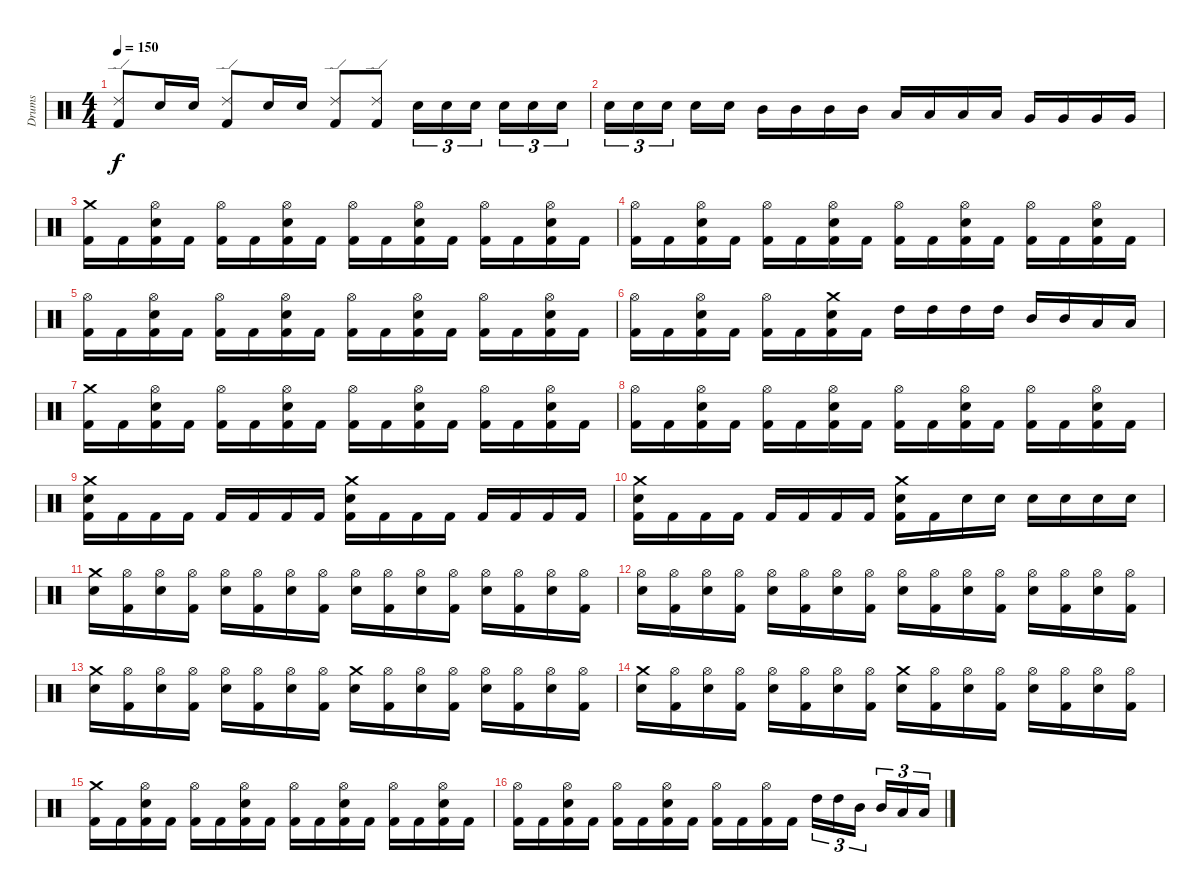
\track ("Drums" "Drums") {instrument percussion}
\staff {score}
\articulation defaults
\ts (4 4)
\tempo 150
\clef neutral
\ks c
("Ride (edge) 2" "Kick (hit) 2").8{dy f} "Electric Snare (hit)".16 "Electric Snare (hit)".16 ("Ride (edge) 2" "Kick (hit) 2").8 "Electric Snare (hit)".16 "Electric Snare (hit)".16 ("Ride (edge) 2" "Kick (hit) 2").8 ("Ride (edge) 2" "Kick (hit) 2").8 "Electric Snare (hit)".16{tu (3 2)} "Electric Snare (hit)".16{tu (3 2)} "Electric Snare (hit)".16{tu (3 2)} "Electric Snare (hit)".16{tu (3 2)} "Electric Snare (hit)".16{tu (3 2)} "Electric Snare (hit)".16{tu (3 2)} |
"Electric Snare (hit)".16{tu (3 2)} "Electric Snare (hit)".16{tu (3 2)} "Electric Snare (hit)".16{tu (3 2)} "Electric Snare (hit)".16 "Electric Snare (hit)".16 "Mid Tom (hit)".16 "Mid Tom (hit)".16 "Mid Tom (hit)".16 "Mid Tom (hit)".16 "Low Tom (hit)".16 "Low Tom (hit)".16 "Low Tom (hit)".16 "Low Tom (hit)".16 "Very Low Tom (hit)".16 "Very Low Tom (hit)".16 "Very Low Tom (hit)".16 "Very Low Tom (hit)".16 |
("Crash medium (hit)" "Kick (hit) 2").16 "Kick (hit) 2".16 ("Hi-Hat (open)" "Electric Snare (hit)" "Kick (hit) 2").16 "Kick (hit) 2".16 ("Hi-Hat (open)" "Kick (hit) 2").16 "Kick (hit) 2".16 ("Hi-Hat (open)" "Electric Snare (hit)" "Kick (hit) 2").16 "Kick (hit) 2".16 ("Hi-Hat (open)" "Kick (hit) 2").16 "Kick (hit) 2".16 ("Hi-Hat (open)" "Electric Snare (hit)" "Kick (hit) 2").16 "Kick (hit) 2".16 ("Hi-Hat (open)" "Kick (hit) 2").16 "Kick (hit) 2".16 ("Hi-Hat (open)" "Electric Snare (hit)" "Kick (hit) 2").16 "Kick (hit) 2".16 |
("Hi-Hat (open)" "Kick (hit) 2").16 "Kick (hit) 2".16 ("Hi-Hat (open)" "Electric Snare (hit)" "Kick (hit) 2").16 "Kick (hit) 2".16 ("Hi-Hat (open)" "Kick (hit) 2").16 "Kick (hit) 2".16 ("Hi-Hat (open)" "Electric Snare (hit)" "Kick (hit) 2").16 "Kick (hit) 2".16 ("Hi-Hat (open)" "Kick (hit) 2").16 "Kick (hit) 2".16 ("Hi-Hat (open)" "Electric Snare (hit)" "Kick (hit) 2").16 "Kick (hit) 2".16 ("Hi-Hat (open)" "Kick (hit) 2").16 "Kick (hit) 2".16 ("Hi-Hat (open)" "Electric Snare (hit)" "Kick (hit) 2").16 "Kick (hit) 2".16 |
("Hi-Hat (open)" "Kick (hit) 2").16 "Kick (hit) 2".16 ("Hi-Hat (open)" "Electric Snare (hit)" "Kick (hit) 2").16 "Kick (hit) 2".16 ("Hi-Hat (open)" "Kick (hit) 2").16 "Kick (hit) 2".16 ("Hi-Hat (open)" "Electric Snare (hit)" "Kick (hit) 2").16 "Kick (hit) 2".16 ("Hi-Hat (open)" "Kick (hit) 2").16 "Kick (hit) 2".16 ("Hi-Hat (open)" "Electric Snare (hit)" "Kick (hit) 2").16 "Kick (hit) 2".16 ("Hi-Hat (open)" "Kick (hit) 2").16 "Kick (hit) 2".16 ("Hi-Hat (open)" "Electric Snare (hit)" "Kick (hit) 2").16 "Kick (hit) 2".16 |
("Hi-Hat (open)" "Kick (hit) 2").16 "Kick (hit) 2".16 ("Hi-Hat (open)" "Electric Snare (hit)" "Kick (hit) 2").16 "Kick (hit) 2".16 ("Hi-Hat (open)" "Kick (hit) 2").16 "Kick (hit) 2".16 ("Crash medium (hit)" "Electric Snare (hit)" "Kick (hit) 2").16 "Kick (hit) 2".16 "High Tom (hit)".16 "High Tom (hit)".16 "High Tom (hit)".16 "High Tom (hit)".16 "Mid Tom (hit)".16 "Mid Tom (hit)".16 "Low Tom (hit)".16 "Low Tom (hit)".16 |
("Crash medium (hit)" "Kick (hit) 2").16 "Kick (hit) 2".16 ("Hi-Hat (open)" "Electric Snare (hit)" "Kick (hit) 2").16 "Kick (hit) 2".16 ("Hi-Hat (open)" "Kick (hit) 2").16 "Kick (hit) 2".16 ("Hi-Hat (open)" "Electric Snare (hit)" "Kick (hit) 2").16 "Kick (hit) 2".16 ("Hi-Hat (open)" "Kick (hit) 2").16 "Kick (hit) 2".16 ("Hi-Hat (open)" "Electric Snare (hit)" "Kick (hit) 2").16 "Kick (hit) 2".16 ("Hi-Hat (open)" "Kick (hit) 2").16 "Kick (hit) 2".16 ("Hi-Hat (open)" "Electric Snare (hit)" "Kick (hit) 2").16 "Kick (hit) 2".16 |
("Hi-Hat (open)" "Kick (hit) 2").16 "Kick (hit) 2".16 ("Hi-Hat (open)" "Electric Snare (hit)" "Kick (hit) 2").16 "Kick (hit) 2".16 ("Hi-Hat (open)" "Kick (hit) 2").16 "Kick (hit) 2".16 ("Hi-Hat (open)" "Electric Snare (hit)" "Kick (hit) 2").16 "Kick (hit) 2".16 ("Hi-Hat (open)" "Kick (hit) 2").16 "Kick (hit) 2".16 ("Hi-Hat (open)" "Electric Snare (hit)" "Kick (hit) 2").16 "Kick (hit) 2".16 ("Hi-Hat (open)" "Kick (hit) 2").16 "Kick (hit) 2".16 ("Hi-Hat (open)" "Electric Snare (hit)" "Kick (hit) 2").16 "Kick (hit) 2".16 |
("Crash medium (hit)" "Electric Snare (hit)" "Kick (hit) 2").16 "Kick (hit) 2".16 "Kick (hit) 2".16 "Kick (hit) 2".16 "Kick (hit) 2".16 "Kick (hit) 2".16 "Kick (hit) 2".16 "Kick (hit) 2".16 ("Crash medium (hit)" "Electric Snare (hit)" "Kick (hit) 2").16 "Kick (hit) 2".16 "Kick (hit) 2".16 "Kick (hit) 2".16 "Kick (hit) 2".16 "Kick (hit) 2".16 "Kick (hit) 2".16 "Kick (hit) 2".16 |
("Crash medium (hit)" "Electric Snare (hit)" "Kick (hit) 2").16 "Kick (hit) 2".16 "Kick (hit) 2".16 "Kick (hit) 2".16 "Kick (hit) 2".16 "Kick (hit) 2".16 "Kick (hit) 2".16 "Kick (hit) 2".16 ("Crash medium (hit)" "Electric Snare (hit)" "Kick (hit) 2").16 "Kick (hit) 2".16 "Electric Snare (hit)".16 "Electric Snare (hit)".16 "Electric Snare (hit)".16 "Electric Snare (hit)".16 "Electric Snare (hit)".16 "Electric Snare (hit)".16 |
("Crash medium (hit)" "Electric Snare (hit)").16 ("Hi-Hat (open)" "Kick (hit) 2").16 ("Hi-Hat (open)" "Electric Snare (hit)").16 ("Hi-Hat (open)" "Kick (hit) 2").16 ("Hi-Hat (open)" "Electric Snare (hit)").16 ("Hi-Hat (open)" "Kick (hit) 2").16 ("Hi-Hat (open)" "Electric Snare (hit)").16 ("Hi-Hat (open)" "Kick (hit) 2").16 ("Hi-Hat (open)" "Electric Snare (hit)").16 ("Hi-Hat (open)" "Kick (hit) 2").16 ("Hi-Hat (open)" "Electric Snare (hit)").16 ("Hi-Hat (open)" "Kick (hit) 2").16 ("Hi-Hat (open)" "Electric Snare (hit)").16 ("Hi-Hat (open)" "Kick (hit) 2").16 ("Hi-Hat (open)" "Electric Snare (hit)").16 ("Hi-Hat (open)" "Kick (hit) 2").16 |
("Hi-Hat (open)" "Electric Snare (hit)").16 ("Hi-Hat (open)" "Kick (hit) 2").16 ("Hi-Hat (open)" "Electric Snare (hit)").16 ("Hi-Hat (open)" "Kick (hit) 2").16 ("Hi-Hat (open)" "Electric Snare (hit)").16 ("Hi-Hat (open)" "Kick (hit) 2").16 ("Hi-Hat (open)" "Electric Snare (hit)").16 ("Hi-Hat (open)" "Kick (hit) 2").16 ("Hi-Hat (open)" "Electric Snare (hit)").16 ("Hi-Hat (open)" "Kick (hit) 2").16 ("Hi-Hat (open)" "Electric Snare (hit)").16 ("Hi-Hat (open)" "Kick (hit) 2").16 ("Hi-Hat (open)" "Electric Snare (hit)").16 ("Hi-Hat (open)" "Kick (hit) 2").16 ("Hi-Hat (open)" "Electric Snare (hit)").16 ("Hi-Hat (open)" "Kick (hit) 2").16 |
("Crash medium (hit)" "Electric Snare (hit)").16 ("Hi-Hat (open)" "Kick (hit) 2").16 ("Hi-Hat (open)" "Electric Snare (hit)").16 ("Hi-Hat (open)" "Kick (hit) 2").16 ("Hi-Hat (open)" "Electric Snare (hit)").16 ("Hi-Hat (open)" "Kick (hit) 2").16 ("Hi-Hat (open)" "Electric Snare (hit)").16 ("Hi-Hat (open)" "Kick (hit) 2").16 ("Crash medium (hit)" "Electric Snare (hit)").16 ("Hi-Hat (open)" "Kick (hit) 2").16 ("Hi-Hat (open)" "Electric Snare (hit)").16 ("Hi-Hat (open)" "Kick (hit) 2").16 ("Hi-Hat (open)" "Electric Snare (hit)").16 ("Hi-Hat (open)" "Kick (hit) 2").16 ("Hi-Hat (open)" "Electric Snare (hit)").16 ("Hi-Hat (open)" "Kick (hit) 2").16 |
("Crash medium (hit)" "Electric Snare (hit)").16 ("Hi-Hat (open)" "Kick (hit) 2").16 ("Hi-Hat (open)" "Electric Snare (hit)").16 ("Hi-Hat (open)" "Kick (hit) 2").16 ("Hi-Hat (open)" "Electric Snare (hit)").16 ("Hi-Hat (open)" "Kick (hit) 2").16 ("Hi-Hat (open)" "Electric Snare (hit)").16 ("Hi-Hat (open)" "Kick (hit) 2").16 ("Crash medium (hit)" "Electric Snare (hit)").16 ("Hi-Hat (open)" "Kick (hit) 2").16 ("Hi-Hat (open)" "Electric Snare (hit)").16 ("Hi-Hat (open)" "Kick (hit) 2").16 ("Hi-Hat (open)" "Electric Snare (hit)").16 ("Hi-Hat (open)" "Kick (hit) 2").16 ("Hi-Hat (open)" "Electric Snare (hit)").16 ("Hi-Hat (open)" "Kick (hit) 2").16 |
("Crash medium (hit)" "Kick (hit) 2").16 "Kick (hit) 2".16 ("Hi-Hat (open)" "Electric Snare (hit)" "Kick (hit) 2").16 "Kick (hit) 2".16 ("Hi-Hat (open)" "Kick (hit) 2").16 "Kick (hit) 2".16 ("Hi-Hat (open)" "Electric Snare (hit)" "Kick (hit) 2").16 "Kick (hit) 2".16 ("Hi-Hat (open)" "Kick (hit) 2").16 "Kick (hit) 2".16 ("Hi-Hat (open)" "Electric Snare (hit)" "Kick (hit) 2").16 "Kick (hit) 2".16 ("Hi-Hat (open)" "Kick (hit) 2").16 "Kick (hit) 2".16 ("Hi-Hat (open)" "Electric Snare (hit)" "Kick (hit) 2").16 "Kick (hit) 2".16 |
("Hi-Hat (open)" "Kick (hit) 2").16 "Kick (hit) 2".16 ("Hi-Hat (open)" "Electric Snare (hit)" "Kick (hit) 2").16 "Kick (hit) 2".16 ("Hi-Hat (open)" "Kick (hit) 2").16 "Kick (hit) 2".16 ("Hi-Hat (open)" "Electric Snare (hit)" "Kick (hit) 2").16 "Kick (hit) 2".16 ("Hi-Hat (open)" "Kick (hit) 2").16 "Kick (hit) 2".16 ("Hi-Hat (open)" "Kick (hit) 2").16 "Kick (hit) 2".16 "High Tom (hit)".16{tu (3 2)} "High Tom (hit)".16{tu (3 2)} "Mid Tom (hit)".16{tu (3 2)} "Mid Tom (hit)".16{tu (3 2)} "Low Tom (hit)".16{tu (3 2)} "Low Tom (hit)".16{tu (3 2)}
